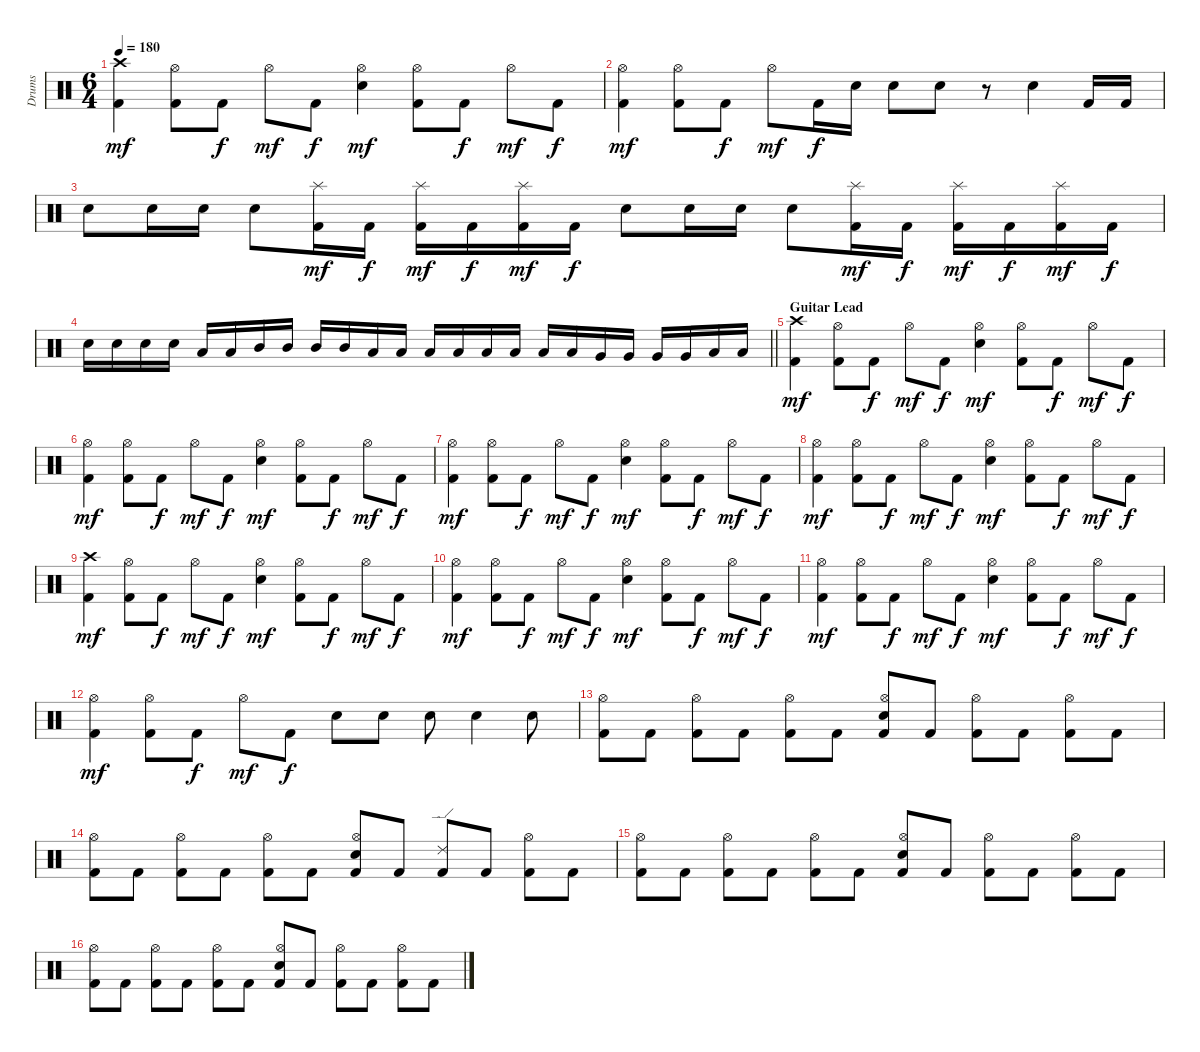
\track ("Drums" "Drums") {instrument percussion}
\staff {score}
\articulation defaults
\ts (6 4)
\tempo 180
\clef neutral
\ks c
("Crash high (hit)" "Kick (hit) 2").4{dy mf} ("Hi-Hat (open)" "Kick (hit) 2").8 "Kick (hit) 2".8{dy f} "Hi-Hat (open)".8{dy mf} "Kick (hit) 2".8{dy f} ("Hi-Hat (open)" "Snare (hit) 2").4{dy mf} ("Hi-Hat (open)" "Kick (hit) 2").8 "Kick (hit) 2".8{dy f} "Hi-Hat (open)".8{dy mf} "Kick (hit) 2".8{dy f} |
("Hi-Hat (open)" "Kick (hit) 2").4{dy mf} ("Hi-Hat (open)" "Kick (hit) 2").8 "Kick (hit) 2".8{dy f} "Hi-Hat (open)".8{dy mf} "Kick (hit) 2".16{dy f} "Snare (hit) 2".16 "Snare (hit) 2".8 "Snare (hit) 2".8 r.8 "Snare (hit) 2".4 "Kick (hit) 2".16 "Kick (hit) 2".16 |
"Snare (hit) 2".8 "Snare (hit) 2".16 "Snare (hit) 2".16 "Snare (hit) 2".8 ("Splash (hit)" "Kick (hit) 2").16{dy mf} "Kick (hit) 2".16{dy f} ("Splash (hit)" "Kick (hit) 2").16{dy mf} "Kick (hit) 2".16{dy f} ("Splash (hit)" "Kick (hit) 2").16{dy mf} "Kick (hit) 2".16{dy f} "Snare (hit) 2".8 "Snare (hit) 2".16 "Snare (hit) 2".16 "Snare (hit) 2".8 ("Splash (hit)" "Kick (hit) 2").16{dy mf} "Kick (hit) 2".16{dy f} ("Splash (hit)" "Kick (hit) 2").16{dy mf} "Kick (hit) 2".16{dy f} ("Splash (hit)" "Kick (hit) 2").16{dy mf} "Kick (hit) 2".16{dy f} |
\barLineRight lightlight "Snare (hit) 2".16 "Snare (hit) 2".16 "Snare (hit) 2".16 "Snare (hit) 2".16 "Low Floor Tom (hit)".16 "Low Floor Tom (hit)".16 "Mid Tom (hit)".16 "Mid Tom (hit)".16 "Mid Tom (hit)".16 "Mid Tom (hit)".16 "Low Floor Tom (hit)".16 "Low Floor Tom (hit)".16 "Low Tom (hit)".16 "Low Tom (hit)".16 "Low Tom (hit)".16 "Low Tom (hit)".16 "Low Floor Tom (hit)".16 "Low Floor Tom (hit)".16 "Very Low Tom (hit)".16 "Very Low Tom (hit)".16 "Very Low Tom (hit)".16 "Very Low Tom (hit)".16 "Low Floor Tom (hit)".16 "Low Floor Tom (hit)".16
|
\section ("" "Guitar Lead")
("Crash high (hit)" "Kick (hit) 2").4{dy mf} ("Hi-Hat (open)" "Kick (hit) 2").8 "Kick (hit) 2".8{dy f} "Hi-Hat (open)".8{dy mf} "Kick (hit) 2".8{dy f} ("Hi-Hat (open)" "Snare (hit) 2").4{dy mf} ("Hi-Hat (open)" "Kick (hit) 2").8 "Kick (hit) 2".8{dy f} "Hi-Hat (open)".8{dy mf} "Kick (hit) 2".8{dy f} |
("Hi-Hat (open)" "Kick (hit) 2").4{dy mf} ("Hi-Hat (open)" "Kick (hit) 2").8 "Kick (hit) 2".8{dy f} "Hi-Hat (open)".8{dy mf} "Kick (hit) 2".8{dy f} ("Hi-Hat (open)" "Snare (hit) 2").4{dy mf} ("Hi-Hat (open)" "Kick (hit) 2").8 "Kick (hit) 2".8{dy f} "Hi-Hat (open)".8{dy mf} "Kick (hit) 2".8{dy f} |
("Hi-Hat (open)" "Kick (hit) 2").4{dy mf} ("Hi-Hat (open)" "Kick (hit) 2").8 "Kick (hit) 2".8{dy f} "Hi-Hat (open)".8{dy mf} "Kick (hit) 2".8{dy f} ("Hi-Hat (open)" "Snare (hit) 2").4{dy mf} ("Hi-Hat (open)" "Kick (hit) 2").8 "Kick (hit) 2".8{dy f} "Hi-Hat (open)".8{dy mf} "Kick (hit) 2".8{dy f} |
("Hi-Hat (open)" "Kick (hit) 2").4{dy mf} ("Hi-Hat (open)" "Kick (hit) 2").8 "Kick (hit) 2".8{dy f} "Hi-Hat (open)".8{dy mf} "Kick (hit) 2".8{dy f} ("Hi-Hat (open)" "Snare (hit) 2").4{dy mf} ("Hi-Hat (open)" "Kick (hit) 2").8 "Kick (hit) 2".8{dy f} "Hi-Hat (open)".8{dy mf} "Kick (hit) 2".8{dy f} |
("Crash high (hit)" "Kick (hit) 2").4{dy mf} ("Hi-Hat (open)" "Kick (hit) 2").8 "Kick (hit) 2".8{dy f} "Hi-Hat (open)".8{dy mf} "Kick (hit) 2".8{dy f} ("Hi-Hat (open)" "Snare (hit) 2").4{dy mf} ("Hi-Hat (open)" "Kick (hit) 2").8 "Kick (hit) 2".8{dy f} "Hi-Hat (open)".8{dy mf} "Kick (hit) 2".8{dy f} |
("Hi-Hat (open)" "Kick (hit) 2").4{dy mf} ("Hi-Hat (open)" "Kick (hit) 2").8 "Kick (hit) 2".8{dy f} "Hi-Hat (open)".8{dy mf} "Kick (hit) 2".8{dy f} ("Hi-Hat (open)" "Snare (hit) 2").4{dy mf} ("Hi-Hat (open)" "Kick (hit) 2").8 "Kick (hit) 2".8{dy f} "Hi-Hat (open)".8{dy mf} "Kick (hit) 2".8{dy f} |
("Hi-Hat (open)" "Kick (hit) 2").4{dy mf} ("Hi-Hat (open)" "Kick (hit) 2").8 "Kick (hit) 2".8{dy f} "Hi-Hat (open)".8{dy mf} "Kick (hit) 2".8{dy f} ("Hi-Hat (open)" "Snare (hit) 2").4{dy mf} ("Hi-Hat (open)" "Kick (hit) 2").8 "Kick (hit) 2".8{dy f} "Hi-Hat (open)".8{dy mf} "Kick (hit) 2".8{dy f} |
("Hi-Hat (open)" "Kick (hit) 2").4{dy mf} ("Hi-Hat (open)" "Kick (hit) 2").8 "Kick (hit) 2".8{dy f} "Hi-Hat (open)".8{dy mf} "Kick (hit) 2".8{dy f} "Snare (hit) 2".8 "Snare (hit) 2".8 "Snare (hit) 2".8 "Snare (hit) 2".4 "Snare (hit) 2".8 |
("Hi-Hat (open)" "Kick (hit) 2").8 "Kick (hit) 2".8 ("Hi-Hat (open)" "Kick (hit) 2").8 "Kick (hit) 2".8 ("Hi-Hat (open)" "Kick (hit) 2").8 "Kick (hit) 2".8 ("Hi-Hat (open)" "Snare (hit) 2" "Kick (hit) 2").8 "Kick (hit) 2".8 ("Hi-Hat (open)" "Kick (hit) 2").8 "Kick (hit) 2".8 ("Hi-Hat (open)" "Kick (hit) 2").8 "Kick (hit) 2".8 |
("Hi-Hat (open)" "Kick (hit) 2").8 "Kick (hit) 2".8 ("Hi-Hat (open)" "Kick (hit) 2").8 "Kick (hit) 2".8 ("Hi-Hat (open)" "Kick (hit) 2").8 "Kick (hit) 2".8 ("Hi-Hat (open)" "Snare (hit) 2" "Kick (hit) 2").8 "Kick (hit) 2".8 ("Ride (edge) 2" "Kick (hit) 2").8 "Kick (hit) 2".8 ("Hi-Hat (open)" "Kick (hit) 2").8 "Kick (hit) 2".8 |
("Hi-Hat (open)" "Kick (hit) 2").8 "Kick (hit) 2".8 ("Hi-Hat (open)" "Kick (hit) 2").8 "Kick (hit) 2".8 ("Hi-Hat (open)" "Kick (hit) 2").8 "Kick (hit) 2".8 ("Hi-Hat (open)" "Snare (hit) 2" "Kick (hit) 2").8 "Kick (hit) 2".8 ("Hi-Hat (open)" "Kick (hit) 2").8 "Kick (hit) 2".8 ("Hi-Hat (open)" "Kick (hit) 2").8 "Kick (hit) 2".8 |
("Hi-Hat (open)" "Kick (hit) 2").8 "Kick (hit) 2".8 ("Hi-Hat (open)" "Kick (hit) 2").8 "Kick (hit) 2".8 ("Hi-Hat (open)" "Kick (hit) 2").8 "Kick (hit) 2".8 ("Hi-Hat (open)" "Snare (hit) 2" "Kick (hit) 2").8 "Kick (hit) 2".8 ("Hi-Hat (open)" "Kick (hit) 2").8 "Kick (hit) 2".8 ("Hi-Hat (open)" "Kick (hit) 2").8 "Kick (hit) 2".8
